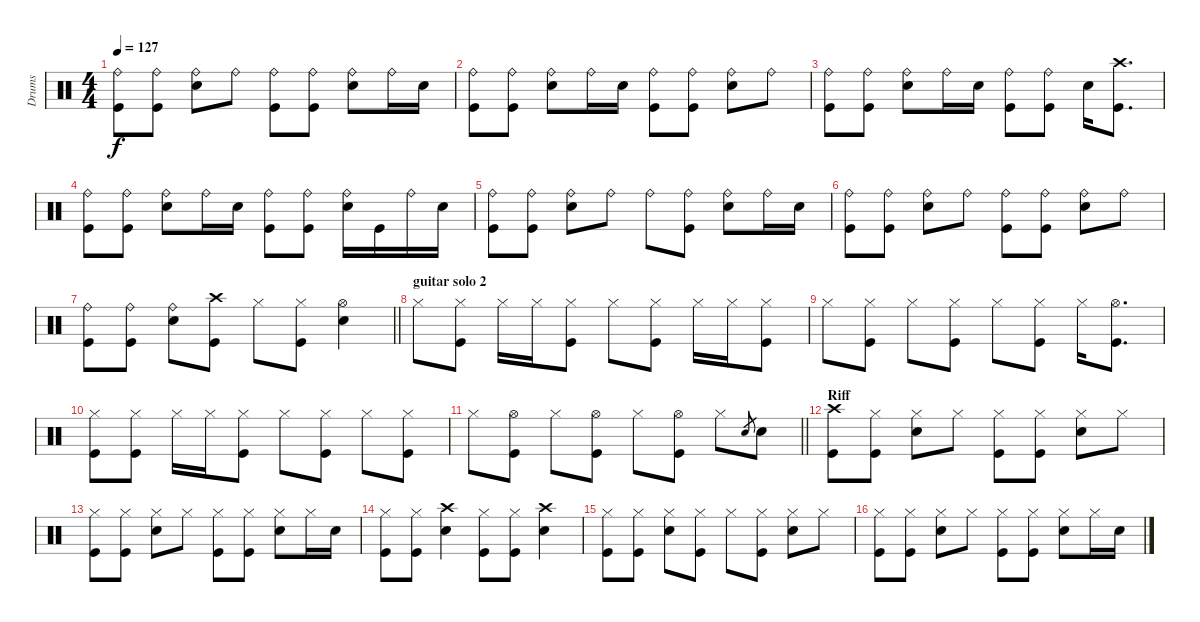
\track ("Drums" "Drums") {instrument percussion}
\staff {score}
\articulation defaults
\ts (4 4)
\tempo 127
\clef neutral
\ks c
("Kick (hit)" "Ride (bell)").8{dy f} ("Kick (hit)" "Ride (bell)").8 ("Snare (hit) 2" "Ride (bell)").8 "Ride (bell)".8 ("Kick (hit)" "Ride (bell)").8 ("Kick (hit)" "Ride (bell)").8 ("Snare (hit) 2" "Ride (bell)").8 "Ride (bell)".16 "Snare (hit) 2".16 |
("Kick (hit)" "Ride (bell)").8 ("Kick (hit)" "Ride (bell)").8 ("Snare (hit) 2" "Ride (bell)").8 "Ride (bell)".16 "Snare (hit) 2".16 ("Kick (hit)" "Ride (bell)").8 ("Kick (hit)" "Ride (bell)").8 ("Snare (hit) 2" "Ride (bell)").8 "Ride (bell)".8 |
("Kick (hit)" "Ride (bell)").8 ("Kick (hit)" "Ride (bell)").8 ("Snare (hit) 2" "Ride (bell)").8 "Ride (bell)".16 "Snare (hit) 2".16 ("Ride (bell)" "Kick (hit)").8 ("Ride (bell)" "Kick (hit)").8 "Snare (hit) 2".16 ("Crash high (hit)" "Kick (hit)").8{d} |
("Ride (bell)" "Kick (hit)").8 ("Ride (bell)" "Kick (hit)").8 ("Ride (bell)" "Snare (hit) 2").8 "Ride (bell)".16 "Snare (hit) 2".16 ("Kick (hit)" "Ride (bell)").8 ("Ride (bell)" "Kick (hit)").8 ("Snare (hit) 2" "Ride (bell)").16 "Kick (hit)".16 "Ride (bell)".16 "Snare (hit) 2".16 |
("Ride (bell)" "Kick (hit)").8 ("Ride (bell)" "Kick (hit)").8 ("Ride (bell)" "Snare (hit) 2").8 "Ride (bell)".8 "Ride (bell)".8 ("Ride (bell)" "Kick (hit)").8 ("Ride (bell)" "Snare (hit) 2").8 "Ride (bell)".16 "Snare (hit) 2".16 |
("Kick (hit)" "Ride (bell)").8 ("Kick (hit)" "Ride (bell)").8 ("Snare (hit) 2" "Ride (bell)").8 "Ride (bell)".8 ("Kick (hit)" "Ride (bell)").8 ("Kick (hit)" "Ride (bell)").8 ("Snare (hit) 2" "Ride (bell)").8 "Ride (bell)".8 |
\barLineRight lightlight
("Ride (bell)" "Kick (hit)").8 ("Ride (bell)" "Kick (hit)").8 ("Ride (bell)" "Snare (hit) 2").8 ("Crash high (hit)" "Kick (hit)").8 "Hi-Hat (closed)".8 ("Kick (hit)" "Hi-Hat (closed)").8 ("Snare (hit) 2" "Hi-Hat (open)").4 |
\section ("" "guitar solo 2")
"Hi-Hat (closed)".8 ("Hi-Hat (closed)" "Kick (hit)").8 "Hi-Hat (closed)".16 "Hi-Hat (closed)".16 ("Hi-Hat (closed)" "Kick (hit)").8 "Hi-Hat (closed)".8 ("Hi-Hat (closed)" "Kick (hit)").8 "Hi-Hat (closed)".16 "Hi-Hat (closed)".16 ("Hi-Hat (closed)" "Kick (hit)").8 |
"Hi-Hat (closed)".8 ("Hi-Hat (closed)" "Kick (hit)").8 "Hi-Hat (closed)".8 ("Hi-Hat (closed)" "Kick (hit)").8 "Hi-Hat (closed)".8 ("Hi-Hat (closed)" "Kick (hit)").8 "Hi-Hat (closed)".16 ("Hi-Hat (open)" "Kick (hit)").8{d} |
("Hi-Hat (closed)" "Kick (hit)").8 ("Hi-Hat (closed)" "Kick (hit)").8 "Hi-Hat (closed)".16 "Hi-Hat (closed)".16 ("Hi-Hat (closed)" "Kick (hit)").8 "Hi-Hat (closed)".8 ("Hi-Hat (closed)" "Kick (hit)").8 "Hi-Hat (closed)".8 ("Hi-Hat (closed)" "Kick (hit)").8 |
\barLineRight lightlight "Hi-Hat (closed)".8
("Hi-Hat (open)" "Kick (hit)").8 "Hi-Hat (closed)".8 ("Hi-Hat (open)" "Kick (hit)").8 "Hi-Hat (closed)".8 ("Hi-Hat (open)" "Kick (hit)").8 "Hi-Hat (closed)".8 "Snare (hit) 2".8{gr} "Snare (hit) 2".8 |
\section ("" "Riff")
("Crash high (hit)" "Kick (hit)").8 ("Hi-Hat (closed)" "Kick (hit)").8 ("Hi-Hat (closed)" "Snare (hit) 2").8 "Hi-Hat (closed)".8 ("Hi-Hat (closed)" "Kick (hit)").8 ("Hi-Hat (closed)" "Kick (hit)").8 ("Hi-Hat (closed)" "Snare (hit) 2").8 "Hi-Hat (closed)".8 |
("Kick (hit)" "Hi-Hat (closed)").8 ("Kick (hit)" "Hi-Hat (closed)").8 ("Snare (hit) 2" "Hi-Hat (closed)").8 "Hi-Hat (closed)".8 ("Kick (hit)" "Hi-Hat (closed)").8 ("Kick (hit)" "Hi-Hat (closed)").8 ("Snare (hit) 2" "Hi-Hat (closed)").8 "Hi-Hat (closed)".16 "Snare (hit) 2".16 |
("Hi-Hat (closed)" "Kick (hit)").8 ("Hi-Hat (closed)" "Kick (hit)").8 ("Crash high (hit)" "Snare (hit) 2").4 ("Hi-Hat (closed)" "Kick (hit)").8 ("Hi-Hat (closed)" "Kick (hit)").8 ("Crash high (hit)" "Snare (hit) 2").4 |
("Kick (hit)" "Hi-Hat (closed)").8 ("Kick (hit)" "Hi-Hat (closed)").8 ("Snare (hit) 2" "Hi-Hat (closed)").8 ("Kick (hit)" "Hi-Hat (closed)").8 "Hi-Hat (closed)".8 ("Kick (hit)" "Hi-Hat (closed)").8 ("Snare (hit) 2" "Hi-Hat (closed)").8 "Hi-Hat (closed)".8 |
("Hi-Hat (closed)" "Kick (hit)").8 ("Hi-Hat (closed)" "Kick (hit)").8 ("Hi-Hat (closed)" "Snare (hit) 2").8 "Hi-Hat (closed)".8 ("Hi-Hat (closed)" "Kick (hit)").8 ("Hi-Hat (closed)" "Kick (hit)").8 ("Hi-Hat (closed)" "Snare (hit) 2").8 "Hi-Hat (closed)".16 "Snare (hit) 2".16
